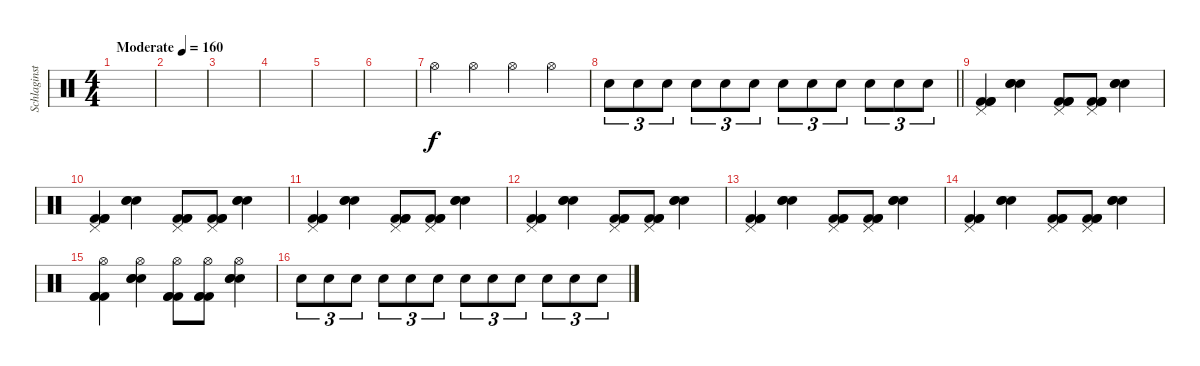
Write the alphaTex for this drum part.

\track ("Schlaginstrumente - Auswahl" "Schlaginst") {instrument percussion}
\staff {score}
\articulation defaults
\ts (4 4)
\tempo (160 "Moderate")
\clef neutral
\ks c
|
|
|
|
|
|
"Hi-Hat (open)".4 "Hi-Hat (open)".4 "Hi-Hat (open)".4 "Hi-Hat (open)".4 |
\barLineRight lightlight "Snare (hit) 2".8{tu (3 2)} "Snare (hit) 2".8{tu (3 2)} "Snare (hit) 2".8{tu (3 2)} "Snare (hit) 2".8{tu (3 2)} "Snare (hit) 2".8{tu (3 2)} "Snare (hit) 2".8{tu (3 2)} "Snare (hit) 2".8{tu (3 2)} "Snare (hit) 2".8{tu (3 2)} "Snare (hit) 2".8{tu (3 2)} "Snare (hit) 2".8{tu (3 2)} "Snare (hit) 2".8{tu (3 2)} "Snare (hit) 2".8{tu (3 2)}
|
("Kick (hit) 2" "Kick (hit) 2" "Kick (hit) 2" "Pedal Hi-Hat (hit)").4 ("Snare (hit) 2" "Snare (hit) 2" "Snare (hit) 2").4 ("Kick (hit) 2" "Kick (hit) 2" "Kick (hit) 2" "Pedal Hi-Hat (hit)").8 ("Kick (hit) 2" "Kick (hit) 2" "Kick (hit) 2" "Pedal Hi-Hat (hit)").8 ("Snare (hit) 2" "Snare (hit) 2" "Snare (hit) 2").4 |
("Kick (hit) 2" "Kick (hit) 2" "Kick (hit) 2" "Pedal Hi-Hat (hit)").4 ("Snare (hit) 2" "Snare (hit) 2" "Snare (hit) 2").4 ("Kick (hit) 2" "Kick (hit) 2" "Kick (hit) 2" "Pedal Hi-Hat (hit)").8 ("Kick (hit) 2" "Kick (hit) 2" "Kick (hit) 2" "Pedal Hi-Hat (hit)").8 ("Snare (hit) 2" "Snare (hit) 2" "Snare (hit) 2").4 |
("Kick (hit) 2" "Kick (hit) 2" "Kick (hit) 2" "Pedal Hi-Hat (hit)").4 ("Snare (hit) 2" "Snare (hit) 2" "Snare (hit) 2").4 ("Kick (hit) 2" "Kick (hit) 2" "Kick (hit) 2" "Pedal Hi-Hat (hit)").8 ("Kick (hit) 2" "Kick (hit) 2" "Kick (hit) 2" "Pedal Hi-Hat (hit)").8 ("Snare (hit) 2" "Snare (hit) 2" "Snare (hit) 2").4 |
("Kick (hit) 2" "Kick (hit) 2" "Kick (hit) 2" "Pedal Hi-Hat (hit)").4 ("Snare (hit) 2" "Snare (hit) 2" "Snare (hit) 2").4 ("Kick (hit) 2" "Kick (hit) 2" "Kick (hit) 2" "Pedal Hi-Hat (hit)").8 ("Kick (hit) 2" "Kick (hit) 2" "Kick (hit) 2" "Pedal Hi-Hat (hit)").8 ("Snare (hit) 2" "Snare (hit) 2" "Snare (hit) 2").4 |
("Kick (hit) 2" "Kick (hit) 2" "Kick (hit) 2" "Pedal Hi-Hat (hit)").4 ("Snare (hit) 2" "Snare (hit) 2" "Snare (hit) 2").4 ("Kick (hit) 2" "Kick (hit) 2" "Kick (hit) 2" "Pedal Hi-Hat (hit)").8 ("Kick (hit) 2" "Kick (hit) 2" "Kick (hit) 2" "Pedal Hi-Hat (hit)").8 ("Snare (hit) 2" "Snare (hit) 2" "Snare (hit) 2").4 |
("Kick (hit) 2" "Kick (hit) 2" "Kick (hit) 2" "Pedal Hi-Hat (hit)").4 ("Snare (hit) 2" "Snare (hit) 2" "Snare (hit) 2").4 ("Kick (hit) 2" "Kick (hit) 2" "Kick (hit) 2" "Pedal Hi-Hat (hit)").8 ("Kick (hit) 2" "Kick (hit) 2" "Kick (hit) 2" "Pedal Hi-Hat (hit)").8 ("Snare (hit) 2" "Snare (hit) 2" "Snare (hit) 2").4 |
("Kick (hit) 2" "Kick (hit) 2" "Kick (hit) 2" "Hi-Hat (open)").4 ("Snare (hit) 2" "Snare (hit) 2" "Snare (hit) 2" "Hi-Hat (open)").4 ("Kick (hit) 2" "Kick (hit) 2" "Kick (hit) 2" "Hi-Hat (open)").8 ("Kick (hit) 2" "Kick (hit) 2" "Kick (hit) 2" "Hi-Hat (open)").8 ("Snare (hit) 2" "Snare (hit) 2" "Snare (hit) 2" "Hi-Hat (open)").4 |
"Snare (hit) 2".8{tu (3 2)} "Snare (hit) 2".8{tu (3 2)} "Snare (hit) 2".8{tu (3 2)} "Snare (hit) 2".8{tu (3 2)} "Snare (hit) 2".8{tu (3 2)} "Snare (hit) 2".8{tu (3 2)} "Snare (hit) 2".8{tu (3 2)} "Snare (hit) 2".8{tu (3 2)} "Snare (hit) 2".8{tu (3 2)} "Snare (hit) 2".8{tu (3 2)} "Snare (hit) 2".8{tu (3 2)} "Snare (hit) 2".8{tu (3 2)}
